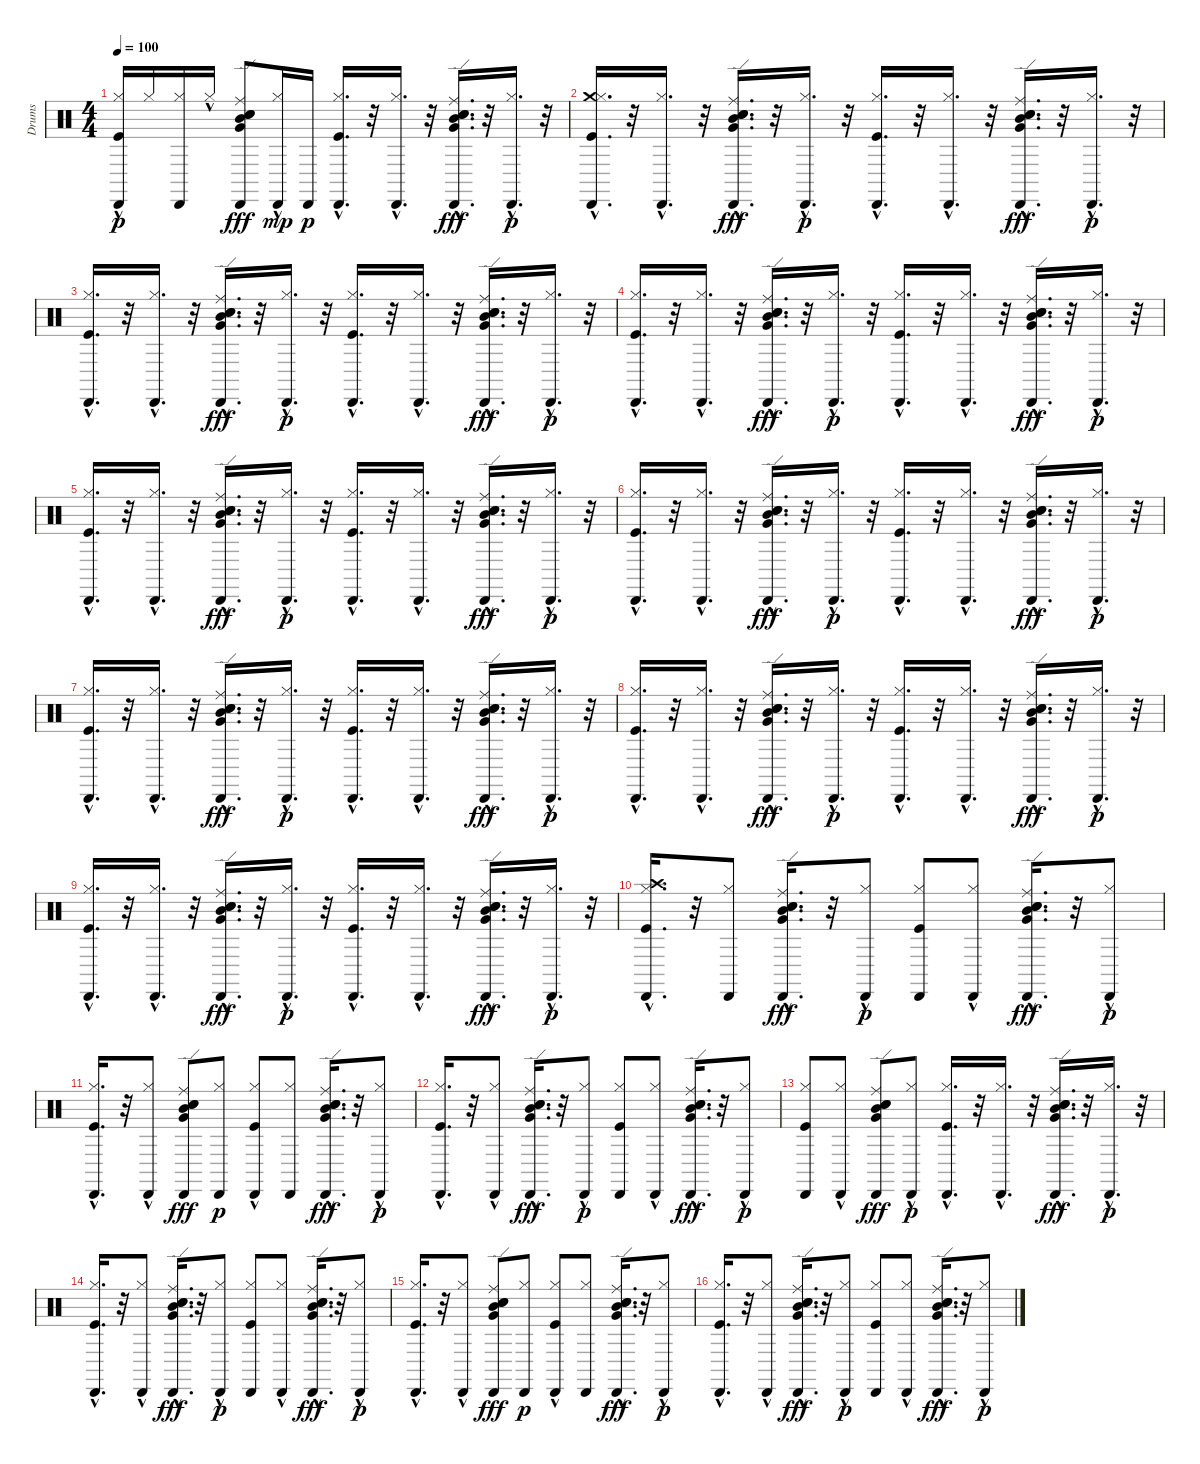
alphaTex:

\track ("Drums" "Drums") {instrument percussion}
\staff {score}
\articulation defaults
\ts (4 4)
\tempo 100
\clef neutral
\ks c
("Hi-Hat (closed)" "Kick (hit)"{hac} "Cabasa (hit)"{hac}).16{dy p} "Hi-Hat (closed)".16 ("Hi-Hat (closed)" "Cabasa (hit)").16 "Hi-Hat (closed)"{hac}.16 ("Electric Snare (hit)" "Snare (hit) 2" "Ride (edge)" "Mid Tom (hit)" "Cabasa (hit)" "Very Low Tom (hit)").8{dy fff} ("Cabasa (hit)" "Hi-Hat (closed)"{hac}).16{dy mp} "Cabasa (hit)".16{dy p} ("Hi-Hat (closed)"{hac} "Kick (hit)"{hac} "Cabasa (hit)"{hac}).16{d} r.32 ("Hi-Hat (closed)"{hac} "Cabasa (hit)"{hac}).16{d} r.32 ("Electric Snare (hit)"{hac} "Snare (hit) 2"{hac} "Ride (edge)"{hac} "Mid Tom (hit)"{hac} "Cabasa (hit)"{hac} "Very Low Tom (hit)"{hac}).16{d dy fff} r.32 ("Hi-Hat (closed)"{hac} "Cabasa (hit)"{hac}).16{d dy p} r.32 |
("Crash medium (hit)" "Hi-Hat (closed)"{hac} "Kick (hit)"{hac} "Cabasa (hit)"{hac}).16{d} r.32 ("Hi-Hat (closed)"{hac} "Cabasa (hit)"{hac}).16{d} r.32 ("Electric Snare (hit)"{hac} "Snare (hit) 2"{hac} "Ride (edge)"{hac} "Mid Tom (hit)"{hac} "Cabasa (hit)"{hac} "Very Low Tom (hit)"{hac}).16{d dy fff} r.32 ("Hi-Hat (closed)"{hac} "Cabasa (hit)"{hac}).16{d dy p} r.32 ("Hi-Hat (closed)"{hac} "Kick (hit)"{hac} "Cabasa (hit)"{hac}).16{d} r.32 ("Hi-Hat (closed)"{hac} "Cabasa (hit)"{hac}).16{d} r.32 ("Electric Snare (hit)"{hac} "Snare (hit) 2"{hac} "Ride (edge)"{hac} "Mid Tom (hit)"{hac} "Cabasa (hit)"{hac} "Very Low Tom (hit)"{hac}).16{d dy fff} r.32 ("Hi-Hat (closed)"{hac} "Cabasa (hit)"{hac}).16{d dy p} r.32 |
("Hi-Hat (closed)"{hac} "Kick (hit)"{hac} "Cabasa (hit)"{hac}).16{d} r.32 ("Hi-Hat (closed)"{hac} "Cabasa (hit)"{hac}).16{d} r.32 ("Electric Snare (hit)"{hac} "Snare (hit) 2"{hac} "Ride (edge)"{hac} "Mid Tom (hit)"{hac} "Cabasa (hit)"{hac} "Very Low Tom (hit)"{hac}).16{d dy fff} r.32 ("Hi-Hat (closed)"{hac} "Cabasa (hit)"{hac}).16{d dy p} r.32 ("Hi-Hat (closed)"{hac} "Kick (hit)"{hac} "Cabasa (hit)"{hac}).16{d} r.32 ("Hi-Hat (closed)"{hac} "Cabasa (hit)"{hac}).16{d} r.32 ("Electric Snare (hit)"{hac} "Snare (hit) 2"{hac} "Ride (edge)"{hac} "Mid Tom (hit)"{hac} "Cabasa (hit)"{hac} "Very Low Tom (hit)"{hac}).16{d dy fff} r.32 ("Hi-Hat (closed)"{hac} "Cabasa (hit)"{hac}).16{d dy p} r.32 |
("Hi-Hat (closed)"{hac} "Kick (hit)"{hac} "Cabasa (hit)"{hac}).16{d} r.32 ("Hi-Hat (closed)"{hac} "Cabasa (hit)"{hac}).16{d} r.32 ("Electric Snare (hit)"{hac} "Snare (hit) 2"{hac} "Ride (edge)"{hac} "Mid Tom (hit)"{hac} "Cabasa (hit)"{hac} "Very Low Tom (hit)"{hac}).16{d dy fff} r.32 ("Hi-Hat (closed)"{hac} "Cabasa (hit)"{hac}).16{d dy p} r.32 ("Hi-Hat (closed)"{hac} "Kick (hit)"{hac} "Cabasa (hit)"{hac}).16{d} r.32 ("Hi-Hat (closed)"{hac} "Cabasa (hit)"{hac}).16{d} r.32 ("Electric Snare (hit)"{hac} "Snare (hit) 2"{hac} "Ride (edge)"{hac} "Mid Tom (hit)"{hac} "Cabasa (hit)"{hac} "Very Low Tom (hit)"{hac}).16{d dy fff} r.32 ("Hi-Hat (closed)"{hac} "Cabasa (hit)"{hac}).16{d dy p} r.32 |
("Hi-Hat (closed)"{hac} "Kick (hit)"{hac} "Cabasa (hit)"{hac}).16{d} r.32 ("Hi-Hat (closed)"{hac} "Cabasa (hit)"{hac}).16{d} r.32 ("Electric Snare (hit)"{hac} "Snare (hit) 2"{hac} "Ride (edge)"{hac} "Mid Tom (hit)"{hac} "Cabasa (hit)"{hac} "Very Low Tom (hit)"{hac}).16{d dy fff} r.32 ("Hi-Hat (closed)"{hac} "Cabasa (hit)"{hac}).16{d dy p} r.32 ("Hi-Hat (closed)"{hac} "Kick (hit)"{hac} "Cabasa (hit)"{hac}).16{d} r.32 ("Hi-Hat (closed)"{hac} "Cabasa (hit)"{hac}).16{d} r.32 ("Electric Snare (hit)"{hac} "Snare (hit) 2"{hac} "Ride (edge)"{hac} "Mid Tom (hit)"{hac} "Cabasa (hit)"{hac} "Very Low Tom (hit)"{hac}).16{d dy fff} r.32 ("Hi-Hat (closed)"{hac} "Cabasa (hit)"{hac}).16{d dy p} r.32 |
("Hi-Hat (closed)"{hac} "Kick (hit)"{hac} "Cabasa (hit)"{hac}).16{d} r.32 ("Hi-Hat (closed)"{hac} "Cabasa (hit)"{hac}).16{d} r.32 ("Electric Snare (hit)"{hac} "Snare (hit) 2"{hac} "Ride (edge)"{hac} "Mid Tom (hit)"{hac} "Cabasa (hit)"{hac} "Very Low Tom (hit)"{hac}).16{d dy fff} r.32 ("Hi-Hat (closed)"{hac} "Cabasa (hit)"{hac}).16{d dy p} r.32 ("Hi-Hat (closed)"{hac} "Kick (hit)"{hac} "Cabasa (hit)"{hac}).16{d} r.32 ("Hi-Hat (closed)"{hac} "Cabasa (hit)"{hac}).16{d} r.32 ("Electric Snare (hit)"{hac} "Snare (hit) 2"{hac} "Ride (edge)"{hac} "Mid Tom (hit)"{hac} "Cabasa (hit)"{hac} "Very Low Tom (hit)"{hac}).16{d dy fff} r.32 ("Hi-Hat (closed)"{hac} "Cabasa (hit)"{hac}).16{d dy p} r.32 |
("Hi-Hat (closed)"{hac} "Kick (hit)"{hac} "Cabasa (hit)"{hac}).16{d} r.32 ("Hi-Hat (closed)"{hac} "Cabasa (hit)"{hac}).16{d} r.32 ("Electric Snare (hit)"{hac} "Snare (hit) 2"{hac} "Ride (edge)"{hac} "Mid Tom (hit)"{hac} "Cabasa (hit)"{hac} "Very Low Tom (hit)"{hac}).16{d dy fff} r.32 ("Hi-Hat (closed)"{hac} "Cabasa (hit)"{hac}).16{d dy p} r.32 ("Hi-Hat (closed)"{hac} "Kick (hit)"{hac} "Cabasa (hit)"{hac}).16{d} r.32 ("Hi-Hat (closed)"{hac} "Cabasa (hit)"{hac}).16{d} r.32 ("Electric Snare (hit)"{hac} "Snare (hit) 2"{hac} "Ride (edge)"{hac} "Mid Tom (hit)"{hac} "Cabasa (hit)"{hac} "Very Low Tom (hit)"{hac}).16{d dy fff} r.32 ("Hi-Hat (closed)"{hac} "Cabasa (hit)"{hac}).16{d dy p} r.32 |
("Hi-Hat (closed)"{hac} "Kick (hit)"{hac} "Cabasa (hit)"{hac}).16{d} r.32 ("Hi-Hat (closed)"{hac} "Cabasa (hit)"{hac}).16{d} r.32 ("Electric Snare (hit)"{hac} "Snare (hit) 2"{hac} "Ride (edge)"{hac} "Mid Tom (hit)"{hac} "Cabasa (hit)"{hac} "Very Low Tom (hit)"{hac}).16{d dy fff} r.32 ("Hi-Hat (closed)"{hac} "Cabasa (hit)"{hac}).16{d dy p} r.32 ("Hi-Hat (closed)"{hac} "Kick (hit)"{hac} "Cabasa (hit)"{hac}).16{d} r.32 ("Hi-Hat (closed)"{hac} "Cabasa (hit)"{hac}).16{d} r.32 ("Electric Snare (hit)"{hac} "Snare (hit) 2"{hac} "Ride (edge)"{hac} "Mid Tom (hit)"{hac} "Cabasa (hit)"{hac} "Very Low Tom (hit)"{hac}).16{d dy fff} r.32 ("Hi-Hat (closed)"{hac} "Cabasa (hit)"{hac}).16{d dy p} r.32 |
("Hi-Hat (closed)"{hac} "Kick (hit)"{hac} "Cabasa (hit)"{hac}).16{d} r.32 ("Hi-Hat (closed)"{hac} "Cabasa (hit)"{hac}).16{d} r.32 ("Electric Snare (hit)"{hac} "Snare (hit) 2"{hac} "Ride (edge)"{hac} "Mid Tom (hit)"{hac} "Cabasa (hit)"{hac} "Very Low Tom (hit)"{hac}).16{d dy fff} r.32 ("Hi-Hat (closed)"{hac} "Cabasa (hit)"{hac}).16{d dy p} r.32 ("Hi-Hat (closed)"{hac} "Kick (hit)"{hac} "Cabasa (hit)"{hac}).16{d} r.32 ("Hi-Hat (closed)"{hac} "Cabasa (hit)"{hac}).16{d} r.32 ("Electric Snare (hit)"{hac} "Snare (hit) 2"{hac} "Ride (edge)"{hac} "Mid Tom (hit)"{hac} "Cabasa (hit)"{hac} "Very Low Tom (hit)"{hac}).16{d dy fff} r.32 ("Hi-Hat (closed)"{hac} "Cabasa (hit)"{hac}).16{d dy p} r.32 |
("Crash high (hit)" "Hi-Hat (closed)"{hac} "Kick (hit)"{hac} "Cabasa (hit)"{hac}).16{d} r.32 ("Hi-Hat (closed)" "Cabasa (hit)").8 ("Electric Snare (hit)"{hac} "Snare (hit) 2"{hac} "Ride (edge)"{hac} "Mid Tom (hit)"{hac} "Cabasa (hit)"{hac} "Very Low Tom (hit)"{hac}).16{d dy fff} r.32 ("Hi-Hat (closed)"{hac} "Cabasa (hit)").8{dy p} ("Hi-Hat (closed)" "Kick (hit)" "Cabasa (hit)").8 ("Hi-Hat (closed)"{hac} "Cabasa (hit)").8 ("Electric Snare (hit)"{hac} "Snare (hit) 2"{hac} "Ride (edge)"{hac} "Mid Tom (hit)"{hac} "Cabasa (hit)"{hac} "Very Low Tom (hit)"{hac}).16{d dy fff} r.32 ("Hi-Hat (closed)"{hac} "Cabasa (hit)").8{dy p} |
("Hi-Hat (closed)"{hac} "Kick (hit)"{hac} "Cabasa (hit)"{hac}).16{d} r.32 ("Hi-Hat (closed)"{hac} "Cabasa (hit)").8 ("Electric Snare (hit)" "Snare (hit) 2" "Ride (edge)" "Mid Tom (hit)" "Cabasa (hit)" "Very Low Tom (hit)").8{dy fff} ("Hi-Hat (closed)" "Cabasa (hit)").8{dy p} ("Hi-Hat (closed)" "Kick (hit)" "Cabasa (hit)"{hac}).8 ("Hi-Hat (closed)" "Cabasa (hit)").8 ("Electric Snare (hit)"{hac} "Snare (hit) 2"{hac} "Ride (edge)"{hac} "Mid Tom (hit)"{hac} "Cabasa (hit)"{hac} "Very Low Tom (hit)"{hac}).16{d dy fff} r.32 ("Hi-Hat (closed)"{hac} "Cabasa (hit)").8{dy p} |
("Hi-Hat (closed)"{hac} "Kick (hit)"{hac} "Cabasa (hit)"{hac}).16{d} r.32 ("Hi-Hat (closed)"{hac} "Cabasa (hit)").8 ("Electric Snare (hit)"{hac} "Snare (hit) 2"{hac} "Ride (edge)"{hac} "Mid Tom (hit)"{hac} "Cabasa (hit)"{hac} "Very Low Tom (hit)"{hac}).16{d dy fff} r.32 ("Hi-Hat (closed)"{hac} "Cabasa (hit)").8{dy p} ("Hi-Hat (closed)" "Kick (hit)" "Cabasa (hit)").8 ("Hi-Hat (closed)"{hac} "Cabasa (hit)").8 ("Electric Snare (hit)"{hac} "Snare (hit) 2"{hac} "Ride (edge)"{hac} "Mid Tom (hit)"{hac} "Cabasa (hit)"{hac} "Very Low Tom (hit)"{hac}).16{d dy fff} r.32 ("Hi-Hat (closed)"{hac} "Cabasa (hit)").8{dy p} |
("Hi-Hat (closed)" "Kick (hit)" "Cabasa (hit)").8 ("Hi-Hat (closed)"{hac} "Cabasa (hit)").8 ("Electric Snare (hit)" "Snare (hit) 2" "Ride (edge)" "Mid Tom (hit)" "Cabasa (hit)" "Very Low Tom (hit)").8{dy fff} ("Hi-Hat (closed)"{hac} "Cabasa (hit)").8{dy p} ("Hi-Hat (closed)"{hac} "Kick (hit)"{hac} "Cabasa (hit)"{hac}).16{d} r.32 ("Hi-Hat (closed)"{hac} "Cabasa (hit)"{hac}).16{d} r.32 ("Electric Snare (hit)"{hac} "Snare (hit) 2"{hac} "Ride (edge)"{hac} "Mid Tom (hit)"{hac} "Cabasa (hit)"{hac} "Very Low Tom (hit)"{hac}).16{d dy fff} r.32 ("Hi-Hat (closed)"{hac} "Cabasa (hit)"{hac}).16{d dy p} r.32 |
("Hi-Hat (closed)"{hac} "Kick (hit)"{hac} "Cabasa (hit)"{hac}).16{d} r.32 ("Hi-Hat (closed)"{hac} "Cabasa (hit)").8 ("Electric Snare (hit)"{hac} "Snare (hit) 2"{hac} "Ride (edge)"{hac} "Mid Tom (hit)"{hac} "Cabasa (hit)"{hac} "Very Low Tom (hit)"{hac}).16{d dy fff} r.32 ("Hi-Hat (closed)"{hac} "Cabasa (hit)").8{dy p} ("Hi-Hat (closed)" "Kick (hit)" "Cabasa (hit)").8 ("Hi-Hat (closed)"{hac} "Cabasa (hit)").8 ("Electric Snare (hit)"{hac} "Snare (hit) 2"{hac} "Ride (edge)"{hac} "Mid Tom (hit)"{hac} "Cabasa (hit)"{hac} "Very Low Tom (hit)"{hac}).16{d dy fff} r.32 ("Hi-Hat (closed)"{hac} "Cabasa (hit)").8{dy p} |
("Hi-Hat (closed)"{hac} "Kick (hit)"{hac} "Cabasa (hit)"{hac}).16{d} r.32 ("Hi-Hat (closed)"{hac} "Cabasa (hit)").8 ("Electric Snare (hit)" "Snare (hit) 2" "Ride (edge)" "Mid Tom (hit)" "Cabasa (hit)" "Very Low Tom (hit)").8{dy fff} ("Hi-Hat (closed)" "Cabasa (hit)").8{dy p} ("Hi-Hat (closed)" "Kick (hit)" "Cabasa (hit)"{hac}).8 ("Hi-Hat (closed)" "Cabasa (hit)").8 ("Electric Snare (hit)"{hac} "Snare (hit) 2"{hac} "Ride (edge)"{hac} "Mid Tom (hit)"{hac} "Cabasa (hit)"{hac} "Very Low Tom (hit)"{hac}).16{d dy fff} r.32 ("Hi-Hat (closed)"{hac} "Cabasa (hit)").8{dy p} |
("Hi-Hat (closed)"{hac} "Kick (hit)"{hac} "Cabasa (hit)"{hac}).16{d} r.32 ("Hi-Hat (closed)"{hac} "Cabasa (hit)").8 ("Electric Snare (hit)"{hac} "Snare (hit) 2"{hac} "Ride (edge)"{hac} "Mid Tom (hit)"{hac} "Cabasa (hit)"{hac} "Very Low Tom (hit)"{hac}).16{d dy fff} r.32 ("Hi-Hat (closed)"{hac} "Cabasa (hit)").8{dy p} ("Hi-Hat (closed)" "Kick (hit)" "Cabasa (hit)").8 ("Hi-Hat (closed)"{hac} "Cabasa (hit)").8 ("Electric Snare (hit)"{hac} "Snare (hit) 2"{hac} "Ride (edge)"{hac} "Mid Tom (hit)"{hac} "Cabasa (hit)"{hac} "Very Low Tom (hit)"{hac}).16{d dy fff} r.32 ("Hi-Hat (closed)"{hac} "Cabasa (hit)").8{dy p}
